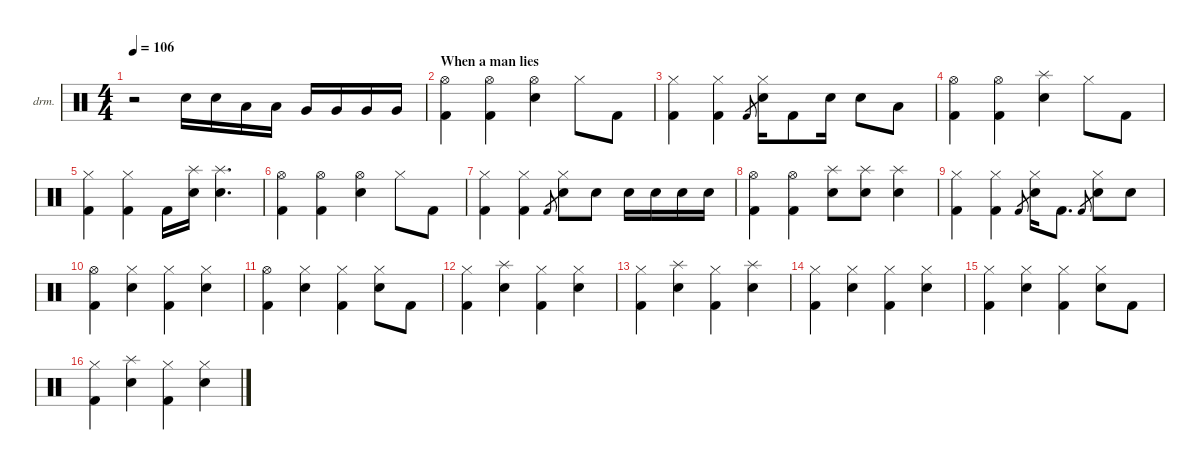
\defaultSystemsLayout 4
\hideDynamics
\bracketExtendMode nobrackets
\firstSystemTrackNameOrientation horizontal
\otherSystemsTrackNameOrientation horizontal
\track ("Lars Ulrich" "drm.") {instrument percussion}
\staff {score}
\articulation defaults
\ts (4 4)
\tempo 106
\clef neutral
\ks c
r.2{dy f} "Snare (hit) 2".16 "Snare (hit) 2".16 "Low Tom (hit)".16 "Low Tom (hit)".16 "Very Low Tom (hit)".16 "Very Low Tom (hit)".16 "Very Low Tom (hit)".16 "Very Low Tom (hit)".16 |
\section ("" "When a man lies")
("Hi-Hat (open)" "Kick (hit) 2").4 ("Hi-Hat (open)" "Kick (hit) 2").4 ("Hi-Hat (open)" "Snare (hit) 2").4{dy fff} "Hi-Hat (closed)".8{dy f} "Kick (hit) 2".8 |
("Hi-Hat (closed)" "Kick (hit) 2").4 ("Hi-Hat (closed)" "Kick (hit) 2").4 "Kick (hit) 2".8{gr dy mf} ("Hi-Hat (closed)" "Snare (hit) 2").16{dy f} "Kick (hit) 2".8 "Snare (hit) 2".16 "Snare (hit) 2".8 "Low Tom (hit)".8 |
("Hi-Hat (open)" "Kick (hit) 2").4 ("Hi-Hat (open)" "Kick (hit) 2").4 ("Splash (hit)" "Snare (hit) 2").4{dy fff} "Hi-Hat (closed)".8{dy f} "Kick (hit) 2".8 |
("Hi-Hat (closed)" "Kick (hit) 2").4 ("Hi-Hat (closed)" "Kick (hit) 2").4 "Kick (hit) 2".16 ("Splash (hit)" "Snare (hit) 2").16{dy fff} ("Splash (hit)" "Snare (hit) 2").4{d} |
("Hi-Hat (open)" "Kick (hit) 2").4{dy f} ("Hi-Hat (open)" "Kick (hit) 2").4 ("Hi-Hat (open)" "Snare (hit) 2").4 "Hi-Hat (closed)".8 "Kick (hit) 2".8 |
("Hi-Hat (closed)" "Kick (hit) 2").4 ("Hi-Hat (closed)" "Kick (hit) 2").4 "Kick (hit) 2".8{gr dy mf} ("Hi-Hat (closed)" "Snare (hit) 2").8{dy f} "Snare (hit) 2".8 "Snare (hit) 2".16 "Snare (hit) 2".16 "Snare (hit) 2".16 "Snare (hit) 2".16 |
("Hi-Hat (open)" "Kick (hit) 2").4 ("Hi-Hat (open)" "Kick (hit) 2").4 ("Splash (hit)" "Snare (hit) 2").8{dy fff} ("Splash (hit)" "Snare (hit) 2").8 ("Splash (hit)" "Snare (hit) 2").4 |
("Hi-Hat (closed)" "Kick (hit) 2").4{dy f} ("Hi-Hat (closed)" "Kick (hit) 2").4 "Kick (hit) 2".8{gr dy mf} ("Hi-Hat (closed)" "Snare (hit) 2").16{dy f} "Kick (hit) 2".8{d} "Kick (hit) 2".8{gr dy mf} ("Hi-Hat (closed)" "Snare (hit) 2").8{dy f} "Snare (hit) 2".8 |
("Hi-Hat (open)" "Kick (hit) 2").4 ("Hi-Hat (closed)" "Snare (hit) 2").4 ("Hi-Hat (closed)" "Kick (hit) 2").4 ("Hi-Hat (closed)" "Snare (hit) 2").4 |
("Hi-Hat (open)" "Kick (hit) 2").4 ("Hi-Hat (closed)" "Snare (hit) 2").4 ("Hi-Hat (closed)" "Kick (hit) 2").4 ("Hi-Hat (closed)" "Snare (hit) 2").8 "Kick (hit) 2".8 |
("Hi-Hat (closed)" "Kick (hit) 2").4 ("Splash (hit)" "Snare (hit) 2").4 ("Hi-Hat (closed)" "Kick (hit) 2").4 ("Hi-Hat (closed)" "Snare (hit) 2").4 |
("Hi-Hat (closed)" "Kick (hit) 2").4 ("Splash (hit)" "Snare (hit) 2").4 ("Hi-Hat (closed)" "Kick (hit) 2").4 ("Splash (hit)" "Snare (hit) 2").4 |
("Hi-Hat (closed)" "Kick (hit) 2").4 ("Hi-Hat (closed)" "Snare (hit) 2").4 ("Hi-Hat (closed)" "Kick (hit) 2").4 ("Hi-Hat (closed)" "Snare (hit) 2").4 |
("Hi-Hat (closed)" "Kick (hit) 2").4 ("Hi-Hat (closed)" "Snare (hit) 2").4 ("Hi-Hat (closed)" "Kick (hit) 2").4 ("Hi-Hat (closed)" "Snare (hit) 2").8 "Kick (hit) 2".8 |
("Hi-Hat (closed)" "Kick (hit) 2").4 ("Splash (hit)" "Snare (hit) 2").4 ("Hi-Hat (closed)" "Kick (hit) 2").4 ("Hi-Hat (closed)" "Snare (hit) 2").4
